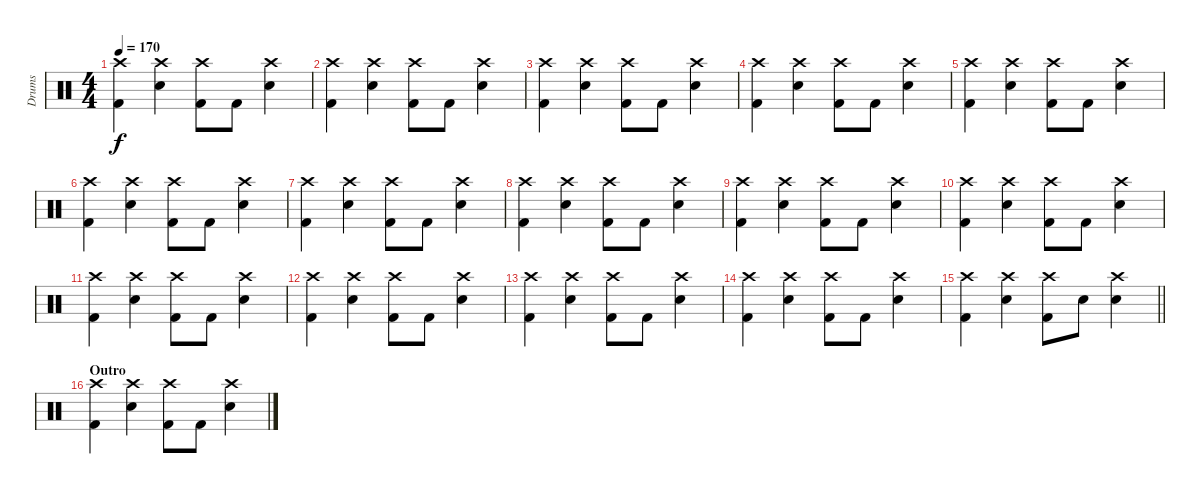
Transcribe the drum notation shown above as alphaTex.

\track ("Drums" "Drums") {instrument percussion}
\staff {score}
\articulation defaults
\ts (4 4)
\tempo 170
\clef neutral
\ks c
("Crash high (hit)" "Kick (hit) 2").4{dy f} ("Crash high (hit)" "Electric Snare (hit)").4 ("Crash high (hit)" "Kick (hit) 2").8 "Kick (hit) 2".8 ("Crash high (hit)" "Electric Snare (hit)").4 |
("Crash high (hit)" "Kick (hit) 2").4 ("Crash high (hit)" "Electric Snare (hit)").4 ("Crash high (hit)" "Kick (hit) 2").8 "Kick (hit) 2".8 ("Crash high (hit)" "Electric Snare (hit)").4 |
("Crash high (hit)" "Kick (hit) 2").4 ("Crash high (hit)" "Electric Snare (hit)").4 ("Crash high (hit)" "Kick (hit) 2").8 "Kick (hit) 2".8 ("Crash high (hit)" "Electric Snare (hit)").4 |
("Crash high (hit)" "Kick (hit) 2").4 ("Crash high (hit)" "Electric Snare (hit)").4 ("Crash high (hit)" "Kick (hit) 2").8 "Kick (hit) 2".8 ("Crash high (hit)" "Electric Snare (hit)").4 |
("Crash high (hit)" "Kick (hit) 2").4 ("Crash high (hit)" "Electric Snare (hit)").4 ("Crash high (hit)" "Kick (hit) 2").8 "Kick (hit) 2".8 ("Crash high (hit)" "Electric Snare (hit)").4 |
("Crash high (hit)" "Kick (hit) 2").4 ("Crash high (hit)" "Electric Snare (hit)").4 ("Crash high (hit)" "Kick (hit) 2").8 "Kick (hit) 2".8 ("Crash high (hit)" "Electric Snare (hit)").4 |
("Crash high (hit)" "Kick (hit) 2").4 ("Crash high (hit)" "Electric Snare (hit)").4 ("Crash high (hit)" "Kick (hit) 2").8 "Kick (hit) 2".8 ("Crash high (hit)" "Electric Snare (hit)").4 |
("Crash high (hit)" "Kick (hit) 2").4 ("Crash high (hit)" "Electric Snare (hit)").4 ("Crash high (hit)" "Kick (hit) 2").8 "Kick (hit) 2".8 ("Crash high (hit)" "Electric Snare (hit)").4 |
("Crash high (hit)" "Kick (hit) 2").4 ("Crash high (hit)" "Electric Snare (hit)").4 ("Crash high (hit)" "Kick (hit) 2").8 "Kick (hit) 2".8 ("Crash high (hit)" "Electric Snare (hit)").4 |
("Crash high (hit)" "Kick (hit) 2").4 ("Crash high (hit)" "Electric Snare (hit)").4 ("Crash high (hit)" "Kick (hit) 2").8 "Kick (hit) 2".8 ("Crash high (hit)" "Electric Snare (hit)").4 |
("Crash high (hit)" "Kick (hit) 2").4 ("Crash high (hit)" "Electric Snare (hit)").4 ("Crash high (hit)" "Kick (hit) 2").8 "Kick (hit) 2".8 ("Crash high (hit)" "Electric Snare (hit)").4 |
("Crash high (hit)" "Kick (hit) 2").4 ("Crash high (hit)" "Electric Snare (hit)").4 ("Crash high (hit)" "Kick (hit) 2").8 "Kick (hit) 2".8 ("Crash high (hit)" "Electric Snare (hit)").4 |
("Crash high (hit)" "Kick (hit) 2").4 ("Crash high (hit)" "Electric Snare (hit)").4 ("Crash high (hit)" "Kick (hit) 2").8 "Kick (hit) 2".8 ("Crash high (hit)" "Electric Snare (hit)").4 |
("Crash high (hit)" "Kick (hit) 2").4 ("Crash high (hit)" "Electric Snare (hit)").4 ("Crash high (hit)" "Kick (hit) 2").8 "Kick (hit) 2".8 ("Crash high (hit)" "Electric Snare (hit)").4 |
\barLineRight lightlight
("Crash high (hit)" "Kick (hit) 2").4 ("Crash high (hit)" "Electric Snare (hit)").4 ("Crash high (hit)" "Kick (hit) 2").8 "Electric Snare (hit)".8 ("Crash high (hit)" "Electric Snare (hit)").4 |
\section ("" "Outro")
("Crash high (hit)" "Kick (hit) 2").4 ("Crash high (hit)" "Electric Snare (hit)").4 ("Crash high (hit)" "Kick (hit) 2").8 "Kick (hit) 2".8 ("Crash high (hit)" "Electric Snare (hit)").4
